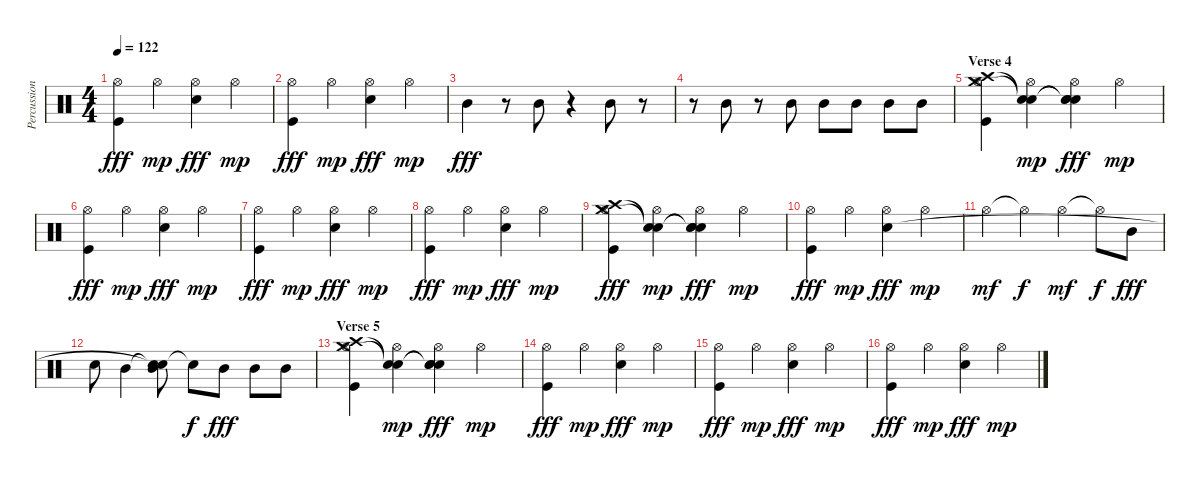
\track ("Percussion" "Percussion") {instrument percussion}
\staff {score}
\articulation defaults
\ts (4 4)
\tempo 122
\clef neutral
\ks c
("Hi-Hat (open)" "Kick (hit)").4{dy fff} "Hi-Hat (open)".4{dy mp} ("Hi-Hat (open)" "Snare (hit) 2").4{dy fff} "Hi-Hat (open)".4{dy mp} |
("Hi-Hat (open)" "Kick (hit)").4{dy fff} "Hi-Hat (open)".4{dy mp} ("Hi-Hat (open)" "Snare (hit) 2").4{dy fff} "Hi-Hat (open)".4{dy mp} |
"Mid Tom (hit)".4{dy fff} r.8 "Mid Tom (hit)".8 r.4 "Mid Tom (hit)".8 r.8 |
r.8 "Mid Tom (hit)".8 r.8 "Mid Tom (hit)".8 "Mid Tom (hit)".8 "Mid Tom (hit)".8 "Mid Tom (hit)".8 "Mid Tom (hit)".8 |
\section ("" "Verse 4")
("Hi-Hat (open)" "Crash high (hit)" "Crash medium (hit)" "Kick (hit)").4 ("Hi-Hat (open)" "Snare (hit)"{t} "Snare (hit)"{t}).4{dy mp} ("Hi-Hat (open)" "Snare (hit)"{t} "Snare (hit)"{t} "Snare (hit) 2").4{dy fff} "Hi-Hat (open)".4{dy mp} |
("Hi-Hat (open)" "Kick (hit)").4{dy fff} "Hi-Hat (open)".4{dy mp} ("Hi-Hat (open)" "Snare (hit) 2").4{dy fff} "Hi-Hat (open)".4{dy mp} |
("Hi-Hat (open)" "Kick (hit)").4{dy fff} "Hi-Hat (open)".4{dy mp} ("Hi-Hat (open)" "Snare (hit) 2").4{dy fff} "Hi-Hat (open)".4{dy mp} |
("Hi-Hat (open)" "Kick (hit)").4{dy fff} "Hi-Hat (open)".4{dy mp} ("Hi-Hat (open)" "Snare (hit) 2").4{dy fff} "Hi-Hat (open)".4{dy mp} |
("Hi-Hat (open)" "Crash high (hit)" "Crash medium (hit)" "Kick (hit)").4{dy fff} ("Hi-Hat (open)" "Snare (hit)"{t} "Snare (hit)"{t}).4{dy mp} ("Hi-Hat (open)" "Snare (hit)"{t} "Snare (hit)"{t} "Snare (hit) 2").4{dy fff} "Hi-Hat (open)".4{dy mp} |
("Hi-Hat (open)" "Kick (hit)").4{dy fff} "Hi-Hat (open)".4{dy mp} ("Hi-Hat (open)" "Snare (hit) 2").4{dy fff} "Hi-Hat (open)".4{dy mp} |
"Hi-Hat (open)".4{dy mf} "Hi-Hat (open)"{t}.4{dy f} "Hi-Hat (open)".4{dy mf} "Hi-Hat (open)"{t}.8{dy f} "Mid Tom (hit)".8{dy fff} |
"Snare (hit) 2".8 "Mid Tom (hit)".4 ("Snare (hit)"{t} "Snare (hit)"{t} "Mid Tom (hit)").8 "Snare (hit)"{t}.8{dy f} "Mid Tom (hit)".8{dy fff} "Mid Tom (hit)".8 "Mid Tom (hit)".8 |
\section ("" "Verse 5")
("Hi-Hat (open)" "Crash high (hit)" "Crash medium (hit)" "Kick (hit)").4 ("Hi-Hat (open)" "Snare (hit)"{t} "Snare (hit)"{t}).4{dy mp} ("Hi-Hat (open)" "Snare (hit)"{t} "Snare (hit)"{t} "Snare (hit) 2").4{dy fff} "Hi-Hat (open)".4{dy mp} |
("Hi-Hat (open)" "Kick (hit)").4{dy fff} "Hi-Hat (open)".4{dy mp} ("Hi-Hat (open)" "Snare (hit) 2").4{dy fff} "Hi-Hat (open)".4{dy mp} |
("Hi-Hat (open)" "Kick (hit)").4{dy fff} "Hi-Hat (open)".4{dy mp} ("Hi-Hat (open)" "Snare (hit) 2").4{dy fff} "Hi-Hat (open)".4{dy mp} |
("Hi-Hat (open)" "Kick (hit)").4{dy fff} "Hi-Hat (open)".4{dy mp} ("Hi-Hat (open)" "Snare (hit) 2").4{dy fff} "Hi-Hat (open)".4{dy mp}
